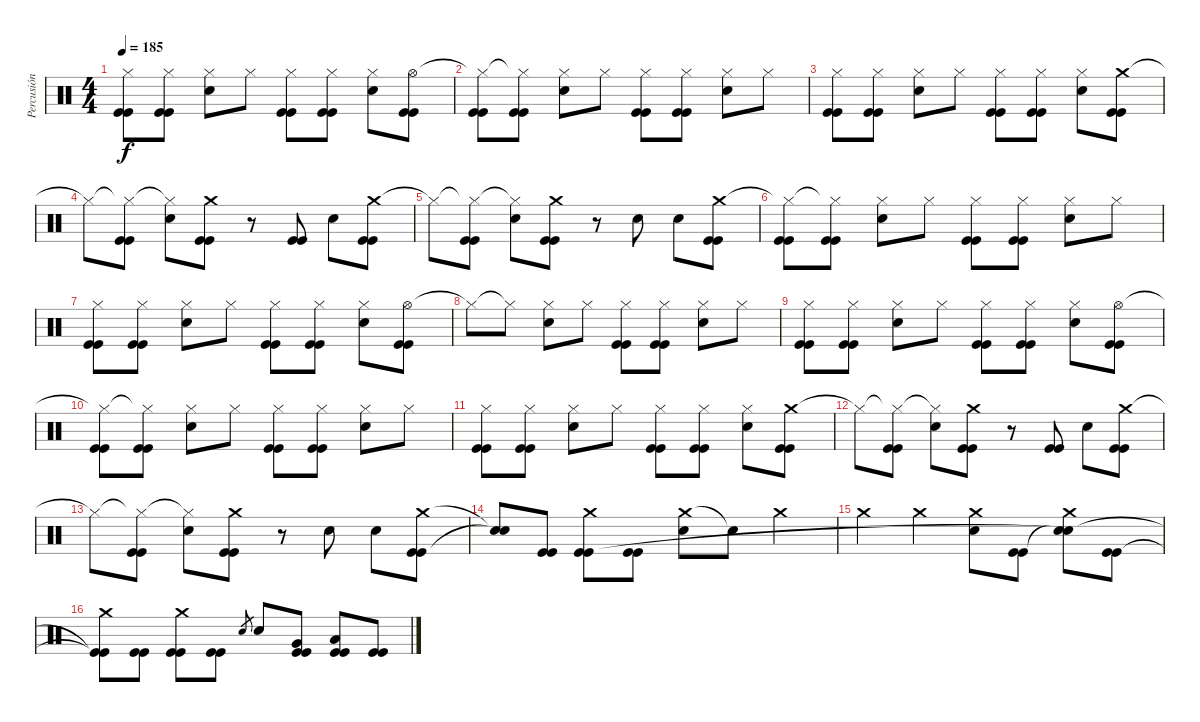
\track ("Percusión" "Percusión") {instrument percussion}
\staff {score}
\articulation defaults
\ts (4 4)
\tempo 185
\clef neutral
\ks c
("Hi-Hat (closed)" "Kick (hit)" "Kick (hit)").8{dy f} ("Hi-Hat (closed)" "Kick (hit)" "Kick (hit)").8 ("Hi-Hat (closed)" "Electric Snare (hit)").8 "Hi-Hat (closed)".8 ("Hi-Hat (closed)" "Kick (hit)" "Kick (hit)").8 ("Hi-Hat (closed)" "Kick (hit)" "Kick (hit)").8 ("Hi-Hat (closed)" "Electric Snare (hit)").8 ("Hi-Hat (open)" "Kick (hit)" "Kick (hit)").8 |
("Hi-Hat (closed)"{t} "Kick (hit)" "Kick (hit)").8 ("Hi-Hat (closed)"{t} "Kick (hit)" "Kick (hit)").8 ("Hi-Hat (closed)" "Electric Snare (hit)").8 "Hi-Hat (closed)".8 ("Hi-Hat (closed)" "Kick (hit)" "Kick (hit)").8 ("Hi-Hat (closed)" "Kick (hit)" "Kick (hit)").8 ("Hi-Hat (closed)" "Electric Snare (hit)").8 "Hi-Hat (closed)".8 |
("Hi-Hat (closed)" "Kick (hit)" "Kick (hit)").8 ("Hi-Hat (closed)" "Kick (hit)" "Kick (hit)").8 ("Hi-Hat (closed)" "Electric Snare (hit)").8 "Hi-Hat (closed)".8 ("Hi-Hat (closed)" "Kick (hit)" "Kick (hit)").8 ("Hi-Hat (closed)" "Kick (hit)" "Kick (hit)").8 ("Hi-Hat (closed)" "Electric Snare (hit)").8 ("Crash medium (hit)" "Kick (hit)" "Kick (hit)").8 |
"Hi-Hat (closed)"{t}.8 ("Hi-Hat (closed)"{t} "Kick (hit)" "Kick (hit)").8 ("Hi-Hat (closed)"{t} "Electric Snare (hit)").8 ("Crash medium (hit)" "Kick (hit)" "Kick (hit)").8 r.8 ("Kick (hit)" "Kick (hit)").8 "Electric Snare (hit)".8 ("Crash medium (hit)" "Kick (hit)" "Kick (hit)").8 |
"Hi-Hat (closed)"{t}.8 ("Hi-Hat (closed)"{t} "Kick (hit)" "Kick (hit)").8 ("Hi-Hat (closed)"{t} "Electric Snare (hit)").8 ("Crash medium (hit)" "Kick (hit)" "Kick (hit)").8 r.8 "Electric Snare (hit)".8 "Electric Snare (hit)".8 ("Crash medium (hit)" "Kick (hit)" "Kick (hit)").8 |
("Hi-Hat (closed)"{t} "Kick (hit)" "Kick (hit)").8 ("Hi-Hat (closed)"{t} "Kick (hit)" "Kick (hit)").8 ("Hi-Hat (closed)" "Electric Snare (hit)").8 "Hi-Hat (closed)".8 ("Hi-Hat (closed)" "Kick (hit)" "Kick (hit)").8 ("Hi-Hat (closed)" "Kick (hit)" "Kick (hit)").8 ("Hi-Hat (closed)" "Electric Snare (hit)").8 "Hi-Hat (closed)".8 |
("Hi-Hat (closed)" "Kick (hit)" "Kick (hit)").8 ("Hi-Hat (closed)" "Kick (hit)" "Kick (hit)").8 ("Hi-Hat (closed)" "Electric Snare (hit)").8 "Hi-Hat (closed)".8 ("Hi-Hat (closed)" "Kick (hit)" "Kick (hit)").8 ("Hi-Hat (closed)" "Kick (hit)" "Kick (hit)").8 ("Hi-Hat (closed)" "Electric Snare (hit)").8 ("Hi-Hat (open)" "Kick (hit)" "Kick (hit)").8 |
"Hi-Hat (closed)"{t}.8 "Hi-Hat (closed)"{t}.8 ("Hi-Hat (closed)" "Electric Snare (hit)").8 "Hi-Hat (closed)".8 ("Hi-Hat (closed)" "Kick (hit)" "Kick (hit)").8 ("Hi-Hat (closed)" "Kick (hit)" "Kick (hit)").8 ("Hi-Hat (closed)" "Electric Snare (hit)").8 "Hi-Hat (closed)".8 |
("Hi-Hat (closed)" "Kick (hit)" "Kick (hit)").8 ("Hi-Hat (closed)" "Kick (hit)" "Kick (hit)").8 ("Hi-Hat (closed)" "Electric Snare (hit)").8 "Hi-Hat (closed)".8 ("Hi-Hat (closed)" "Kick (hit)" "Kick (hit)").8 ("Hi-Hat (closed)" "Kick (hit)" "Kick (hit)").8 ("Hi-Hat (closed)" "Electric Snare (hit)").8 ("Hi-Hat (open)" "Kick (hit)" "Kick (hit)").8 |
("Hi-Hat (closed)"{t} "Kick (hit)" "Kick (hit)").8 ("Hi-Hat (closed)"{t} "Kick (hit)" "Kick (hit)").8 ("Hi-Hat (closed)" "Electric Snare (hit)").8 "Hi-Hat (closed)".8 ("Hi-Hat (closed)" "Kick (hit)" "Kick (hit)").8 ("Hi-Hat (closed)" "Kick (hit)" "Kick (hit)").8 ("Hi-Hat (closed)" "Electric Snare (hit)").8 "Hi-Hat (closed)".8 |
("Hi-Hat (closed)" "Kick (hit)" "Kick (hit)").8 ("Hi-Hat (closed)" "Kick (hit)" "Kick (hit)").8 ("Hi-Hat (closed)" "Electric Snare (hit)").8 "Hi-Hat (closed)".8 ("Hi-Hat (closed)" "Kick (hit)" "Kick (hit)").8 ("Hi-Hat (closed)" "Kick (hit)" "Kick (hit)").8 ("Hi-Hat (closed)" "Electric Snare (hit)").8 ("Crash medium (hit)" "Kick (hit)" "Kick (hit)").8 |
"Hi-Hat (closed)"{t}.8 ("Hi-Hat (closed)"{t} "Kick (hit)" "Kick (hit)").8 ("Hi-Hat (closed)"{t} "Electric Snare (hit)").8 ("Crash medium (hit)" "Kick (hit)" "Kick (hit)").8 r.8 ("Kick (hit)" "Kick (hit)").8 "Electric Snare (hit)".8 ("Crash medium (hit)" "Kick (hit)" "Kick (hit)").8 |
"Hi-Hat (closed)"{t}.8 ("Hi-Hat (closed)"{t} "Kick (hit)" "Kick (hit)").8 ("Hi-Hat (closed)"{t} "Electric Snare (hit)").8 ("Crash medium (hit)" "Kick (hit)" "Kick (hit)").8 r.8 "Electric Snare (hit)".8 "Electric Snare (hit)".8 ("Crash medium (hit)" "Kick (hit)" "Kick (hit)").8 |
("Snare (hit)"{t} "Snare (hit)"{t}).8 ("Kick (hit)" "Kick (hit)").8 ("Crash medium (hit)" "Kick (hit)" "Kick (hit)").8 ("Kick (hit)" "Kick (hit)").8 ("Crash medium (hit)" "Electric Snare (hit)").8 "Snare (hit)"{t}.8 "Crash medium (hit)".4 |
"Crash medium (hit)".4 "Crash medium (hit)".4 ("Crash medium (hit)" "Electric Snare (hit)").8 ("Kick (hit)" "Kick (hit)").8 ("Crash medium (hit)" "Snare (hit)"{t} "Snare (hit)"{t}).8 ("Kick (hit)" "Kick (hit)").8 |
("Crash medium (hit)" "Kick (hit)"{t} "Kick (hit)"{t}).8 ("Kick (hit)" "Kick (hit)").8 ("Crash medium (hit)" "Kick (hit)" "Kick (hit)").8 ("Kick (hit)" "Kick (hit)").8 "Electric Snare (hit)".8{gr} "Electric Snare (hit)".8 ("Very Low Tom (hit)" "Kick (hit)" "Kick (hit)").8 ("Low Floor Tom (hit)" "Kick (hit)" "Kick (hit)").8 ("Kick (hit)" "Kick (hit)").8
